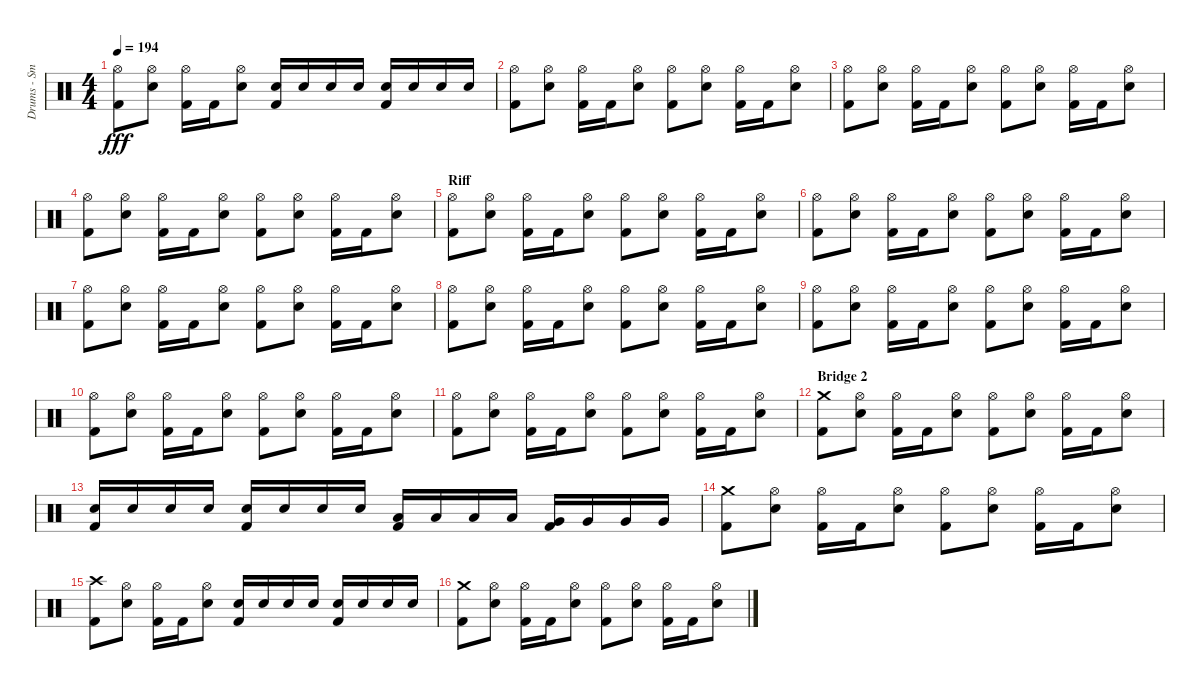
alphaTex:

\track ("Drums - Smelly" "Drums - Sm") {instrument percussion}
\staff {score}
\articulation defaults
\ts (4 4)
\tempo 194
\clef neutral
\ks c
("Kick (hit) 2" "Hi-Hat (open)").8{dy fff} ("Electric Snare (hit)" "Hi-Hat (open)").8 ("Kick (hit) 2" "Hi-Hat (open)").16 "Kick (hit) 2".16 ("Electric Snare (hit)" "Hi-Hat (open)").8 ("Electric Snare (hit)" "Kick (hit) 2").16 "Electric Snare (hit)".16 "Electric Snare (hit)".16 "Electric Snare (hit)".16 ("Electric Snare (hit)" "Kick (hit) 2").16 "Electric Snare (hit)".16 "Electric Snare (hit)".16 "Electric Snare (hit)".16 |
("Kick (hit) 2" "Hi-Hat (open)").8 ("Electric Snare (hit)" "Hi-Hat (open)").8 ("Kick (hit) 2" "Hi-Hat (open)").16 "Kick (hit) 2".16 ("Electric Snare (hit)" "Hi-Hat (open)").8 ("Kick (hit) 2" "Hi-Hat (open)").8 ("Electric Snare (hit)" "Hi-Hat (open)").8 ("Kick (hit) 2" "Hi-Hat (open)").16 "Kick (hit) 2".16 ("Electric Snare (hit)" "Hi-Hat (open)").8 |
("Kick (hit) 2" "Hi-Hat (open)").8 ("Electric Snare (hit)" "Hi-Hat (open)").8 ("Kick (hit) 2" "Hi-Hat (open)").16 "Kick (hit) 2".16 ("Electric Snare (hit)" "Hi-Hat (open)").8 ("Kick (hit) 2" "Hi-Hat (open)").8 ("Electric Snare (hit)" "Hi-Hat (open)").8 ("Kick (hit) 2" "Hi-Hat (open)").16 "Kick (hit) 2".16 ("Electric Snare (hit)" "Hi-Hat (open)").8 |
("Kick (hit) 2" "Hi-Hat (open)").8 ("Electric Snare (hit)" "Hi-Hat (open)").8 ("Kick (hit) 2" "Hi-Hat (open)").16 "Kick (hit) 2".16 ("Electric Snare (hit)" "Hi-Hat (open)").8 ("Kick (hit) 2" "Hi-Hat (open)").8 ("Electric Snare (hit)" "Hi-Hat (open)").8 ("Kick (hit) 2" "Hi-Hat (open)").16 "Kick (hit) 2".16 ("Electric Snare (hit)" "Hi-Hat (open)").8 |
\section ("" "Riff")
("Kick (hit) 2" "Hi-Hat (open)").8 ("Electric Snare (hit)" "Hi-Hat (open)").8 ("Kick (hit) 2" "Hi-Hat (open)").16 "Kick (hit) 2".16 ("Electric Snare (hit)" "Hi-Hat (open)").8 ("Kick (hit) 2" "Hi-Hat (open)").8 ("Electric Snare (hit)" "Hi-Hat (open)").8 ("Kick (hit) 2" "Hi-Hat (open)").16 "Kick (hit) 2".16 ("Electric Snare (hit)" "Hi-Hat (open)").8 |
("Kick (hit) 2" "Hi-Hat (open)").8 ("Electric Snare (hit)" "Hi-Hat (open)").8 ("Kick (hit) 2" "Hi-Hat (open)").16 "Kick (hit) 2".16 ("Electric Snare (hit)" "Hi-Hat (open)").8 ("Kick (hit) 2" "Hi-Hat (open)").8 ("Electric Snare (hit)" "Hi-Hat (open)").8 ("Kick (hit) 2" "Hi-Hat (open)").16 "Kick (hit) 2".16 ("Electric Snare (hit)" "Hi-Hat (open)").8 |
("Kick (hit) 2" "Hi-Hat (open)").8 ("Electric Snare (hit)" "Hi-Hat (open)").8 ("Kick (hit) 2" "Hi-Hat (open)").16 "Kick (hit) 2".16 ("Electric Snare (hit)" "Hi-Hat (open)").8 ("Kick (hit) 2" "Hi-Hat (open)").8 ("Electric Snare (hit)" "Hi-Hat (open)").8 ("Kick (hit) 2" "Hi-Hat (open)").16 "Kick (hit) 2".16 ("Electric Snare (hit)" "Hi-Hat (open)").8 |
("Kick (hit) 2" "Hi-Hat (open)").8 ("Electric Snare (hit)" "Hi-Hat (open)").8 ("Kick (hit) 2" "Hi-Hat (open)").16 "Kick (hit) 2".16 ("Electric Snare (hit)" "Hi-Hat (open)").8 ("Kick (hit) 2" "Hi-Hat (open)").8 ("Electric Snare (hit)" "Hi-Hat (open)").8 ("Kick (hit) 2" "Hi-Hat (open)").16 "Kick (hit) 2".16 ("Electric Snare (hit)" "Hi-Hat (open)").8 |
("Kick (hit) 2" "Hi-Hat (open)").8 ("Electric Snare (hit)" "Hi-Hat (open)").8 ("Kick (hit) 2" "Hi-Hat (open)").16 "Kick (hit) 2".16 ("Electric Snare (hit)" "Hi-Hat (open)").8 ("Kick (hit) 2" "Hi-Hat (open)").8 ("Electric Snare (hit)" "Hi-Hat (open)").8 ("Kick (hit) 2" "Hi-Hat (open)").16 "Kick (hit) 2".16 ("Electric Snare (hit)" "Hi-Hat (open)").8 |
("Kick (hit) 2" "Hi-Hat (open)").8 ("Electric Snare (hit)" "Hi-Hat (open)").8 ("Kick (hit) 2" "Hi-Hat (open)").16 "Kick (hit) 2".16 ("Electric Snare (hit)" "Hi-Hat (open)").8 ("Kick (hit) 2" "Hi-Hat (open)").8 ("Electric Snare (hit)" "Hi-Hat (open)").8 ("Kick (hit) 2" "Hi-Hat (open)").16 "Kick (hit) 2".16 ("Electric Snare (hit)" "Hi-Hat (open)").8 |
("Kick (hit) 2" "Hi-Hat (open)").8 ("Electric Snare (hit)" "Hi-Hat (open)").8 ("Kick (hit) 2" "Hi-Hat (open)").16 "Kick (hit) 2".16 ("Electric Snare (hit)" "Hi-Hat (open)").8 ("Kick (hit) 2" "Hi-Hat (open)").8 ("Electric Snare (hit)" "Hi-Hat (open)").8 ("Kick (hit) 2" "Hi-Hat (open)").16 "Kick (hit) 2".16 ("Electric Snare (hit)" "Hi-Hat (open)").8 |
\section ("" "Bridge 2")
("Crash medium (hit)" "Kick (hit) 2").8 ("Electric Snare (hit)" "Hi-Hat (open)").8 ("Kick (hit) 2" "Hi-Hat (open)").16 "Kick (hit) 2".16 ("Electric Snare (hit)" "Hi-Hat (open)").8 ("Kick (hit) 2" "Hi-Hat (open)").8 ("Electric Snare (hit)" "Hi-Hat (open)").8 ("Kick (hit) 2" "Hi-Hat (open)").16 "Kick (hit) 2".16 ("Electric Snare (hit)" "Hi-Hat (open)").8 |
("Electric Snare (hit)" "Kick (hit) 2").16 "Electric Snare (hit)".16 "Electric Snare (hit)".16 "Electric Snare (hit)".16 ("Electric Snare (hit)" "Kick (hit) 2").16 "Electric Snare (hit)".16 "Electric Snare (hit)".16 "Electric Snare (hit)".16 ("Low Tom (hit)" "Kick (hit) 2").16 "Low Tom (hit)".16 "Low Tom (hit)".16 "Low Tom (hit)".16 ("Very Low Tom (hit)" "Kick (hit) 2").16 "Very Low Tom (hit)".16 "Very Low Tom (hit)".16 "Very Low Tom (hit)".16 |
("Crash medium (hit)" "Kick (hit) 2").8 ("Hi-Hat (open)" "Electric Snare (hit)").8 ("Hi-Hat (open)" "Kick (hit) 2").16 "Kick (hit) 2".16 ("Hi-Hat (open)" "Electric Snare (hit)").8 ("Hi-Hat (open)" "Kick (hit) 2").8 ("Hi-Hat (open)" "Electric Snare (hit)").8 ("Hi-Hat (open)" "Kick (hit) 2").16 "Kick (hit) 2".16 ("Hi-Hat (open)" "Electric Snare (hit)").8 |
("Crash high (hit)" "Kick (hit) 2").8 ("Hi-Hat (open)" "Electric Snare (hit)").8 ("Hi-Hat (open)" "Kick (hit) 2").16 "Kick (hit) 2".16 ("Hi-Hat (open)" "Electric Snare (hit)").8 ("Electric Snare (hit)" "Kick (hit) 2").16 "Electric Snare (hit)".16 "Electric Snare (hit)".16 "Electric Snare (hit)".16 ("Electric Snare (hit)" "Kick (hit) 2").16 "Electric Snare (hit)".16 "Electric Snare (hit)".16 "Electric Snare (hit)".16 |
("Crash medium (hit)" "Kick (hit) 2").8 ("Hi-Hat (open)" "Electric Snare (hit)").8 ("Hi-Hat (open)" "Kick (hit) 2").16 "Kick (hit) 2".16 ("Hi-Hat (open)" "Electric Snare (hit)").8 ("Hi-Hat (open)" "Kick (hit) 2").8 ("Hi-Hat (open)" "Electric Snare (hit)").8 ("Hi-Hat (open)" "Kick (hit) 2").16 "Kick (hit) 2".16 ("Hi-Hat (open)" "Electric Snare (hit)").8
